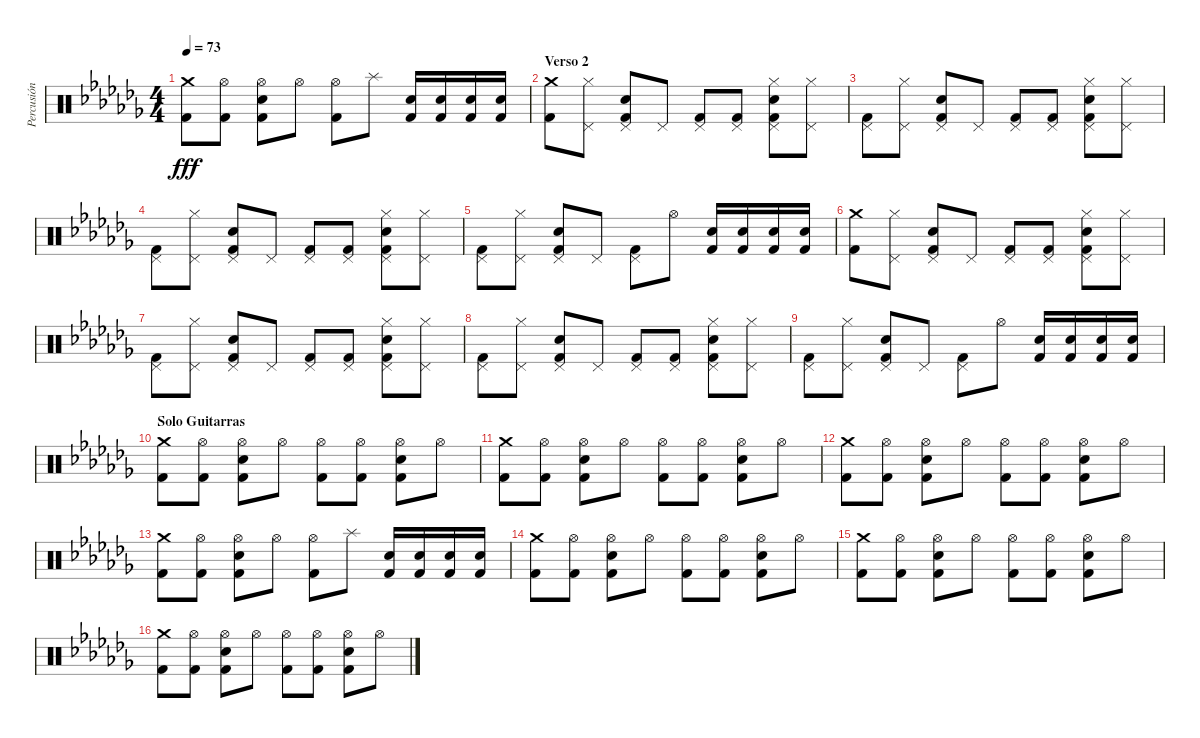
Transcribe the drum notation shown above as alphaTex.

\track ("Percusión" "Percusión") {instrument percussion}
\staff {score}
\articulation defaults
\ts (4 4)
\tempo 73
\clef neutral
\ks abminor
("Crash medium (hit)" "Kick (hit) 2").8{dy fff} ("Hi-Hat (open)" "Kick (hit) 2").8 ("Hi-Hat (open)" "Snare (hit) 2" "Kick (hit) 2").8 "Hi-Hat (open)".8 ("Hi-Hat (open)" "Kick (hit) 2").8 "Splash (hit)".8 ("Snare (hit) 2" "Kick (hit) 2").16 ("Snare (hit) 2" "Kick (hit) 2").16 ("Snare (hit) 2" "Kick (hit) 2").16 ("Snare (hit) 2" "Kick (hit) 2").16 |
\section ("" "Verso 2")
("Crash medium (hit)" "Kick (hit) 2").8 ("Pedal Hi-Hat (hit)" "Hi-Hat (closed)").8 ("Pedal Hi-Hat (hit)" "Snare (hit) 2" "Kick (hit) 2").8 "Pedal Hi-Hat (hit)".8 ("Pedal Hi-Hat (hit)" "Kick (hit) 2").8 ("Pedal Hi-Hat (hit)" "Kick (hit) 2").8 ("Pedal Hi-Hat (hit)" "Hi-Hat (closed)" "Snare (hit) 2" "Kick (hit) 2").8 ("Pedal Hi-Hat (hit)" "Hi-Hat (closed)").8 |
("Pedal Hi-Hat (hit)" "Kick (hit) 2").8 ("Pedal Hi-Hat (hit)" "Hi-Hat (closed)").8 ("Pedal Hi-Hat (hit)" "Snare (hit) 2" "Kick (hit) 2").8 "Pedal Hi-Hat (hit)".8 ("Pedal Hi-Hat (hit)" "Kick (hit) 2").8 ("Pedal Hi-Hat (hit)" "Kick (hit) 2").8 ("Pedal Hi-Hat (hit)" "Hi-Hat (closed)" "Snare (hit) 2" "Kick (hit) 2").8 ("Pedal Hi-Hat (hit)" "Hi-Hat (closed)").8 |
("Pedal Hi-Hat (hit)" "Kick (hit) 2").8 ("Pedal Hi-Hat (hit)" "Hi-Hat (closed)").8 ("Pedal Hi-Hat (hit)" "Snare (hit) 2" "Kick (hit) 2").8 "Pedal Hi-Hat (hit)".8 ("Pedal Hi-Hat (hit)" "Kick (hit) 2").8 ("Pedal Hi-Hat (hit)" "Kick (hit) 2").8 ("Pedal Hi-Hat (hit)" "Hi-Hat (closed)" "Snare (hit) 2" "Kick (hit) 2").8 ("Pedal Hi-Hat (hit)" "Hi-Hat (closed)").8 |
("Pedal Hi-Hat (hit)" "Kick (hit) 2").8 ("Pedal Hi-Hat (hit)" "Hi-Hat (closed)").8 ("Pedal Hi-Hat (hit)" "Snare (hit) 2" "Kick (hit) 2").8 "Pedal Hi-Hat (hit)".8 ("Pedal Hi-Hat (hit)" "Kick (hit) 2").8 "Hi-Hat (open)".8 ("Snare (hit) 2" "Kick (hit) 2").16 ("Snare (hit) 2" "Kick (hit) 2").16 ("Snare (hit) 2" "Kick (hit) 2").16 ("Snare (hit) 2" "Kick (hit) 2").16 |
("Crash medium (hit)" "Kick (hit) 2").8 ("Pedal Hi-Hat (hit)" "Hi-Hat (closed)").8 ("Pedal Hi-Hat (hit)" "Snare (hit) 2" "Kick (hit) 2").8 "Pedal Hi-Hat (hit)".8 ("Pedal Hi-Hat (hit)" "Kick (hit) 2").8 ("Pedal Hi-Hat (hit)" "Kick (hit) 2").8 ("Pedal Hi-Hat (hit)" "Hi-Hat (closed)" "Snare (hit) 2" "Kick (hit) 2").8 ("Pedal Hi-Hat (hit)" "Hi-Hat (closed)").8 |
("Pedal Hi-Hat (hit)" "Kick (hit) 2").8 ("Pedal Hi-Hat (hit)" "Hi-Hat (closed)").8 ("Pedal Hi-Hat (hit)" "Snare (hit) 2" "Kick (hit) 2").8 "Pedal Hi-Hat (hit)".8 ("Pedal Hi-Hat (hit)" "Kick (hit) 2").8 ("Pedal Hi-Hat (hit)" "Kick (hit) 2").8 ("Pedal Hi-Hat (hit)" "Hi-Hat (closed)" "Snare (hit) 2" "Kick (hit) 2").8 ("Pedal Hi-Hat (hit)" "Hi-Hat (closed)").8 |
("Pedal Hi-Hat (hit)" "Kick (hit) 2").8 ("Pedal Hi-Hat (hit)" "Hi-Hat (closed)").8 ("Pedal Hi-Hat (hit)" "Snare (hit) 2" "Kick (hit) 2").8 "Pedal Hi-Hat (hit)".8 ("Pedal Hi-Hat (hit)" "Kick (hit) 2").8 ("Pedal Hi-Hat (hit)" "Kick (hit) 2").8 ("Pedal Hi-Hat (hit)" "Hi-Hat (closed)" "Snare (hit) 2" "Kick (hit) 2").8 ("Pedal Hi-Hat (hit)" "Hi-Hat (closed)").8 |
("Pedal Hi-Hat (hit)" "Kick (hit) 2").8 ("Pedal Hi-Hat (hit)" "Hi-Hat (closed)").8 ("Pedal Hi-Hat (hit)" "Snare (hit) 2" "Kick (hit) 2").8 "Pedal Hi-Hat (hit)".8 ("Pedal Hi-Hat (hit)" "Kick (hit) 2").8 "Hi-Hat (open)".8 ("Snare (hit) 2" "Kick (hit) 2").16 ("Snare (hit) 2" "Kick (hit) 2").16 ("Snare (hit) 2" "Kick (hit) 2").16 ("Snare (hit) 2" "Kick (hit) 2").16 |
\section ("" "Solo Guitarras")
("Crash medium (hit)" "Kick (hit) 2").8 ("Hi-Hat (open)" "Kick (hit) 2").8 ("Hi-Hat (open)" "Snare (hit) 2" "Kick (hit) 2").8 "Hi-Hat (open)".8 ("Hi-Hat (open)" "Kick (hit) 2").8 ("Hi-Hat (open)" "Kick (hit) 2").8 ("Hi-Hat (open)" "Snare (hit) 2" "Kick (hit) 2").8 "Hi-Hat (open)".8 |
("Crash medium (hit)" "Kick (hit) 2").8 ("Hi-Hat (open)" "Kick (hit) 2").8 ("Hi-Hat (open)" "Snare (hit) 2" "Kick (hit) 2").8 "Hi-Hat (open)".8 ("Hi-Hat (open)" "Kick (hit) 2").8 ("Hi-Hat (open)" "Kick (hit) 2").8 ("Hi-Hat (open)" "Snare (hit) 2" "Kick (hit) 2").8 "Hi-Hat (open)".8 |
("Crash medium (hit)" "Kick (hit) 2").8 ("Hi-Hat (open)" "Kick (hit) 2").8 ("Hi-Hat (open)" "Snare (hit) 2" "Kick (hit) 2").8 "Hi-Hat (open)".8 ("Hi-Hat (open)" "Kick (hit) 2").8 ("Hi-Hat (open)" "Kick (hit) 2").8 ("Hi-Hat (open)" "Snare (hit) 2" "Kick (hit) 2").8 "Hi-Hat (open)".8 |
("Crash medium (hit)" "Kick (hit) 2").8 ("Hi-Hat (open)" "Kick (hit) 2").8 ("Hi-Hat (open)" "Snare (hit) 2" "Kick (hit) 2").8 "Hi-Hat (open)".8 ("Hi-Hat (open)" "Kick (hit) 2").8 "Splash (hit)".8 ("Snare (hit) 2" "Kick (hit) 2").16 ("Snare (hit) 2" "Kick (hit) 2").16 ("Snare (hit) 2" "Kick (hit) 2").16 ("Snare (hit) 2" "Kick (hit) 2").16 |
("Crash medium (hit)" "Kick (hit) 2").8 ("Hi-Hat (open)" "Kick (hit) 2").8 ("Hi-Hat (open)" "Snare (hit) 2" "Kick (hit) 2").8 "Hi-Hat (open)".8 ("Hi-Hat (open)" "Kick (hit) 2").8 ("Hi-Hat (open)" "Kick (hit) 2").8 ("Hi-Hat (open)" "Snare (hit) 2" "Kick (hit) 2").8 "Hi-Hat (open)".8 |
("Crash medium (hit)" "Kick (hit) 2").8 ("Hi-Hat (open)" "Kick (hit) 2").8 ("Hi-Hat (open)" "Snare (hit) 2" "Kick (hit) 2").8 "Hi-Hat (open)".8 ("Hi-Hat (open)" "Kick (hit) 2").8 ("Hi-Hat (open)" "Kick (hit) 2").8 ("Hi-Hat (open)" "Snare (hit) 2" "Kick (hit) 2").8 "Hi-Hat (open)".8 |
("Crash medium (hit)" "Kick (hit) 2").8 ("Hi-Hat (open)" "Kick (hit) 2").8 ("Hi-Hat (open)" "Snare (hit) 2" "Kick (hit) 2").8 "Hi-Hat (open)".8 ("Hi-Hat (open)" "Kick (hit) 2").8 ("Hi-Hat (open)" "Kick (hit) 2").8 ("Hi-Hat (open)" "Snare (hit) 2" "Kick (hit) 2").8 "Hi-Hat (open)".8
